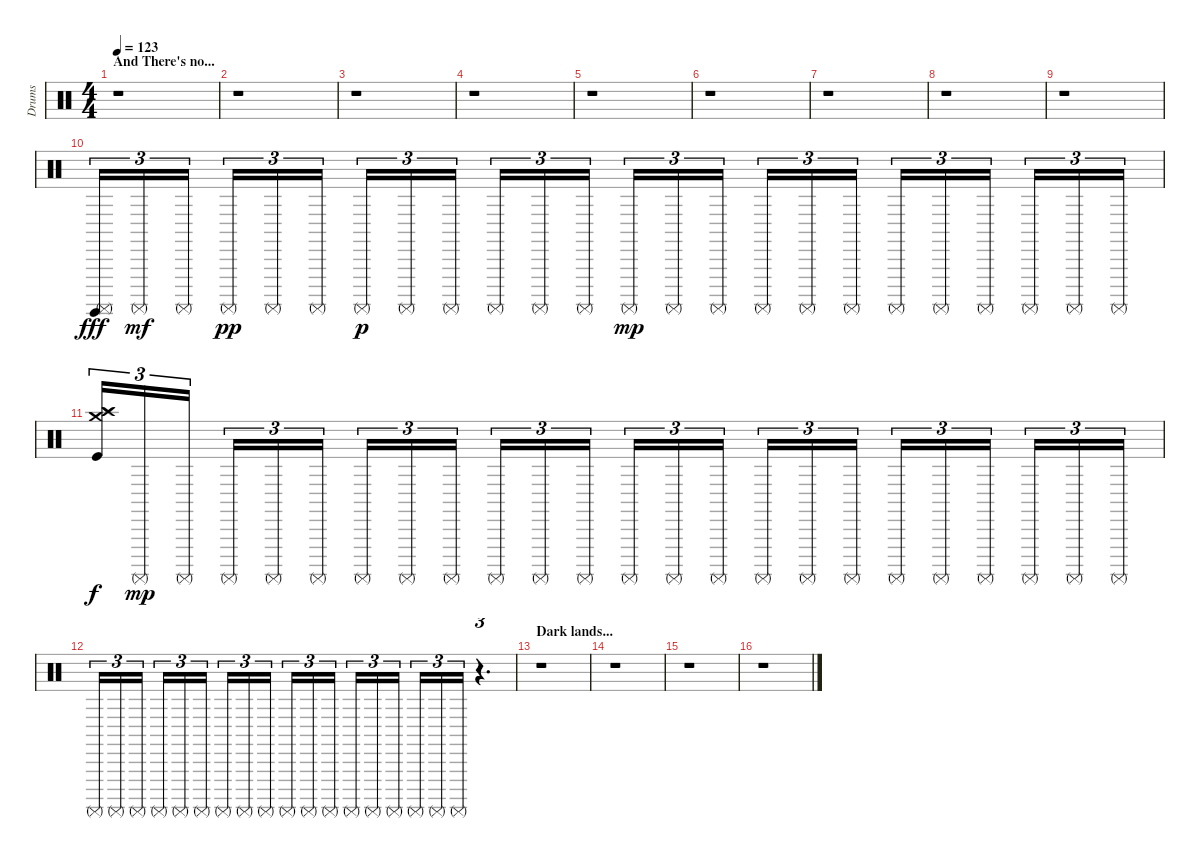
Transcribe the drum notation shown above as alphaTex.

\track ("Drums" "Drums") {instrument percussion}
\staff {score}
\articulation defaults
\ts (4 4)
\section ("" "And There's no...")
\tempo 123
\clef neutral
\ks c
r.1{dy fff} |
r.1 |
r.1 |
r.1 |
r.1 |
r.1 |
r.1 |
r.1 |
r.1 |
("Surdo (mute)" "Surdo (hit)").16{tu (3 2)} "Surdo (mute)".16{tu (3 2) dy mf} "Surdo (mute)".16{tu (3 2)} "Surdo (mute)".16{tu (3 2) dy pp} "Surdo (mute)".16{tu (3 2)} "Surdo (mute)".16{tu (3 2)} "Surdo (mute)".16{tu (3 2) dy p} "Surdo (mute)".16{tu (3 2)} "Surdo (mute)".16{tu (3 2)} "Surdo (mute)".16{tu (3 2)} "Surdo (mute)".16{tu (3 2)} "Surdo (mute)".16{tu (3 2)} "Surdo (mute)".16{tu (3 2) dy mp} "Surdo (mute)".16{tu (3 2)} "Surdo (mute)".16{tu (3 2)} "Surdo (mute)".16{tu (3 2)} "Surdo (mute)".16{tu (3 2)} "Surdo (mute)".16{tu (3 2)} "Surdo (mute)".16{tu (3 2)} "Surdo (mute)".16{tu (3 2)} "Surdo (mute)".16{tu (3 2)} "Surdo (mute)".16{tu (3 2)} "Surdo (mute)".16{tu (3 2)} "Surdo (mute)".16{tu (3 2)} |
("Crash medium (hit)" "Splash (hit)" "Crash high (hit)" "Kick (hit)").16{tu (3 2) dy f} "Surdo (mute)".16{tu (3 2) dy mp} "Surdo (mute)".16{tu (3 2)} "Surdo (mute)".16{tu (3 2)} "Surdo (mute)".16{tu (3 2)} "Surdo (mute)".16{tu (3 2)} "Surdo (mute)".16{tu (3 2)} "Surdo (mute)".16{tu (3 2)} "Surdo (mute)".16{tu (3 2)} "Surdo (mute)".16{tu (3 2)} "Surdo (mute)".16{tu (3 2)} "Surdo (mute)".16{tu (3 2)} "Surdo (mute)".16{tu (3 2)} "Surdo (mute)".16{tu (3 2)} "Surdo (mute)".16{tu (3 2)} "Surdo (mute)".16{tu (3 2)} "Surdo (mute)".16{tu (3 2)} "Surdo (mute)".16{tu (3 2)} "Surdo (mute)".16{tu (3 2)} "Surdo (mute)".16{tu (3 2)} "Surdo (mute)".16{tu (3 2)} "Surdo (mute)".16{tu (3 2)} "Surdo (mute)".16{tu (3 2)} "Surdo (mute)".16{tu (3 2)} |
"Surdo (mute)".16{tu (3 2)} "Surdo (mute)".16{tu (3 2)} "Surdo (mute)".16{tu (3 2)} "Surdo (mute)".16{tu (3 2)} "Surdo (mute)".16{tu (3 2)} "Surdo (mute)".16{tu (3 2)} "Surdo (mute)".16{tu (3 2)} "Surdo (mute)".16{tu (3 2)} "Surdo (mute)".16{tu (3 2)} "Surdo (mute)".16{tu (3 2)} "Surdo (mute)".16{tu (3 2)} "Surdo (mute)".16{tu (3 2)} "Surdo (mute)".16{tu (3 2)} "Surdo (mute)".16{tu (3 2)} "Surdo (mute)".16{tu (3 2)} "Surdo (mute)".16{tu (3 2)} "Surdo (mute)".16{tu (3 2)} "Surdo (mute)".16{tu (3 2)} r.4{d tu (3 2)} |
\section ("" "Dark lands...")
r.1 |
r.1 |
r.1 |
r.1
